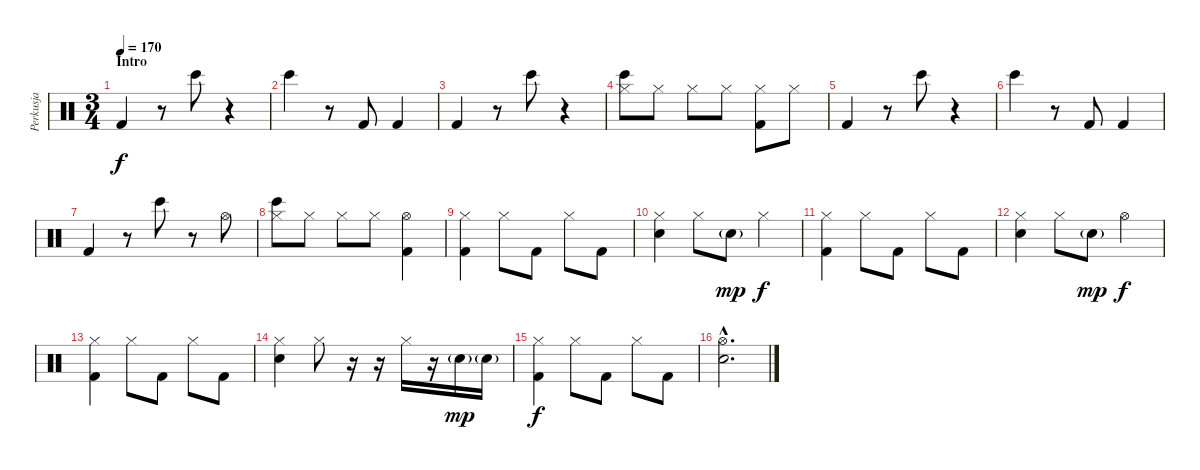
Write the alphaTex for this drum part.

\track ("Perkusja" "Perkusja") {instrument percussion}
\staff {score}
\articulation defaults
\ts (3 4)
\section ("" "Intro")
\tempo 170
\clef neutral
\ks c "Kick (hit) 2".4{dy f}
r.8 "Bongo High (hit)".8 r.4 |
"Bongo High (hit)".4 r.8 "Kick (hit) 2".8 "Kick (hit) 2".4 |
"Kick (hit) 2".4 r.8 "Bongo High (hit)".8 r.4 |
("Bongo High (hit)" "Hi-Hat (closed)").8 "Hi-Hat (closed)".8 "Hi-Hat (closed)".8 "Hi-Hat (closed)".8 ("Kick (hit) 2" "Hi-Hat (closed)").8 "Hi-Hat (closed)".8 |
"Kick (hit) 2".4 r.8 "Bongo High (hit)".8 r.4 |
"Bongo High (hit)".4 r.8 "Kick (hit) 2".8 "Kick (hit) 2".4 |
"Kick (hit) 2".4 r.8 "Bongo High (hit)".8 r.8 "Hi-Hat (open)".8 |
("Bongo High (hit)" "Hi-Hat (closed)").8 "Hi-Hat (closed)".8 "Hi-Hat (closed)".8 "Hi-Hat (closed)".8 ("Kick (hit) 2" "Hi-Hat (open)").4 |
("Kick (hit) 2" "Hi-Hat (closed)").4 "Hi-Hat (closed)".8 "Kick (hit) 2".8 "Hi-Hat (closed)".8 "Kick (hit) 2".8 |
("Snare (hit) 2" "Hi-Hat (closed)").4 "Hi-Hat (closed)".8 "Snare (hit) 2"{g}.8{dy mp} "Hi-Hat (closed)".4{dy f} |
("Kick (hit) 2" "Hi-Hat (closed)").4 "Hi-Hat (closed)".8 "Kick (hit) 2".8 "Hi-Hat (closed)".8 "Kick (hit) 2".8 |
("Snare (hit) 2" "Hi-Hat (closed)").4 "Hi-Hat (closed)".8 "Snare (hit) 2"{g}.8{dy mp} "Hi-Hat (open)".4{dy f} |
("Kick (hit) 2" "Hi-Hat (closed)").4 "Hi-Hat (closed)".8 "Kick (hit) 2".8 "Hi-Hat (closed)".8 "Kick (hit) 2".8 |
("Snare (hit) 2" "Hi-Hat (closed)").4 "Hi-Hat (closed)".8 r.16 r.16 "Hi-Hat (closed)".16 r.16 "Snare (hit) 2"{g}.16{dy mp} "Snare (hit) 2"{g}.16 |
("Kick (hit) 2" "Hi-Hat (closed)").4{dy f} "Hi-Hat (closed)".8 "Kick (hit) 2".8 "Hi-Hat (closed)".8 "Kick (hit) 2".8 |
("Snare (hit) 2"{hac} "Hi-Hat (open)"{hac}).2{d}
